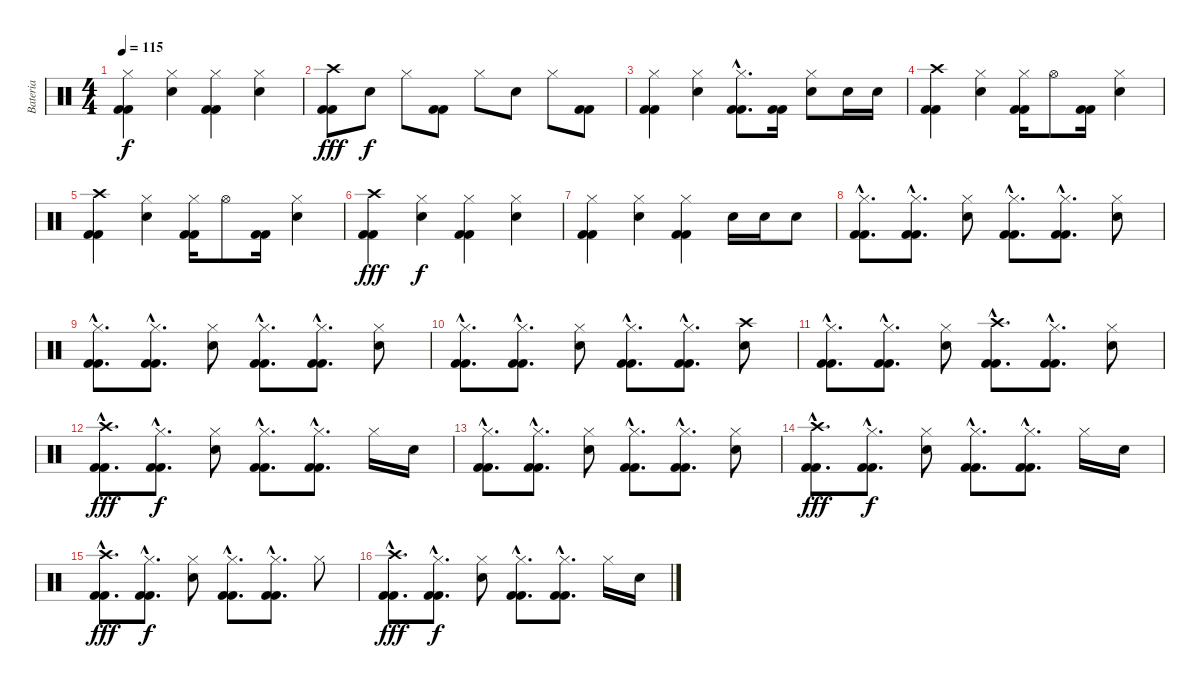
\track ("Bateria" "Bateria") {instrument percussion}
\staff {score}
\articulation defaults
\ts (4 4)
\tempo 115
\clef neutral
\ks c
("Hi-Hat (closed)" "Kick (hit) 2" "Kick (hit) 2").4{dy f} ("Hi-Hat (closed)" "Electric Snare (hit)").4 ("Hi-Hat (closed)" "Kick (hit) 2" "Kick (hit) 2").4 ("Hi-Hat (closed)" "Electric Snare (hit)").4 |
("Crash high (hit)" "Kick (hit) 2" "Kick (hit) 2").8{dy fff} "Electric Snare (hit)".8{dy f} "Hi-Hat (closed)".8 ("Kick (hit) 2" "Kick (hit) 2").8 "Hi-Hat (closed)".8 "Electric Snare (hit)".8 "Hi-Hat (closed)".8 ("Kick (hit) 2" "Kick (hit) 2").8 |
("Hi-Hat (closed)" "Kick (hit) 2" "Kick (hit) 2").4 ("Hi-Hat (closed)" "Electric Snare (hit)").4 ("Hi-Hat (closed)"{hac} "Kick (hit) 2"{hac} "Kick (hit) 2"{hac}).8{d} ("Kick (hit) 2" "Kick (hit) 2").16 ("Hi-Hat (closed)" "Electric Snare (hit)").8 "Electric Snare (hit)".16 "Electric Snare (hit)".16 |
("Crash high (hit)" "Kick (hit) 2" "Kick (hit) 2").4 ("Hi-Hat (closed)" "Electric Snare (hit)").4 ("Hi-Hat (closed)" "Kick (hit) 2" "Kick (hit) 2").16 "Hi-Hat (open)".8 ("Kick (hit) 2" "Kick (hit) 2").16 ("Hi-Hat (closed)" "Electric Snare (hit)").4 |
("Crash high (hit)" "Kick (hit) 2" "Kick (hit) 2").4 ("Hi-Hat (closed)" "Electric Snare (hit)").4 ("Hi-Hat (closed)" "Kick (hit) 2" "Kick (hit) 2").16 "Hi-Hat (open)".8 ("Kick (hit) 2" "Kick (hit) 2").16 ("Hi-Hat (closed)" "Electric Snare (hit)").4 |
("Crash high (hit)" "Kick (hit) 2" "Kick (hit) 2").4{dy fff} ("Hi-Hat (closed)" "Electric Snare (hit)").4{dy f} ("Hi-Hat (closed)" "Kick (hit) 2" "Kick (hit) 2").4 ("Hi-Hat (closed)" "Electric Snare (hit)").4 |
("Hi-Hat (closed)" "Kick (hit) 2" "Kick (hit) 2").4 ("Hi-Hat (closed)" "Electric Snare (hit)").4 ("Hi-Hat (closed)" "Kick (hit) 2" "Kick (hit) 2").4 "Electric Snare (hit)".16 "Electric Snare (hit)".16 "Electric Snare (hit)".8 |
("Hi-Hat (closed)"{hac} "Kick (hit) 2"{hac} "Kick (hit) 2"{hac}).8{d} ("Hi-Hat (closed)"{hac} "Kick (hit) 2"{hac} "Kick (hit) 2"{hac}).8{d} ("Hi-Hat (closed)" "Electric Snare (hit)").8 ("Hi-Hat (closed)"{hac} "Kick (hit) 2"{hac} "Kick (hit) 2"{hac}).8{d} ("Hi-Hat (closed)"{hac} "Kick (hit) 2"{hac} "Kick (hit) 2"{hac}).8{d} ("Hi-Hat (closed)" "Electric Snare (hit)").8 |
("Hi-Hat (closed)"{hac} "Kick (hit) 2"{hac} "Kick (hit) 2"{hac}).8{d} ("Hi-Hat (closed)"{hac} "Kick (hit) 2"{hac} "Kick (hit) 2"{hac}).8{d} ("Hi-Hat (closed)" "Electric Snare (hit)").8 ("Hi-Hat (closed)"{hac} "Kick (hit) 2"{hac} "Kick (hit) 2"{hac}).8{d} ("Hi-Hat (closed)"{hac} "Kick (hit) 2"{hac} "Kick (hit) 2"{hac}).8{d} ("Hi-Hat (closed)" "Electric Snare (hit)").8 |
("Hi-Hat (closed)"{hac} "Kick (hit) 2"{hac} "Kick (hit) 2"{hac}).8{d} ("Hi-Hat (closed)"{hac} "Kick (hit) 2"{hac} "Kick (hit) 2"{hac}).8{d} ("Hi-Hat (closed)" "Electric Snare (hit)").8 ("Hi-Hat (closed)"{hac} "Kick (hit) 2"{hac} "Kick (hit) 2"{hac}).8{d} ("Hi-Hat (closed)"{hac} "Kick (hit) 2"{hac} "Kick (hit) 2"{hac}).8{d} ("Crash high (hit)" "Electric Snare (hit)").8 |
("Hi-Hat (closed)"{hac} "Kick (hit) 2"{hac} "Kick (hit) 2"{hac}).8{d} ("Hi-Hat (closed)"{hac} "Kick (hit) 2"{hac} "Kick (hit) 2"{hac}).8{d} ("Hi-Hat (closed)" "Electric Snare (hit)").8 ("Crash high (hit)"{hac} "Kick (hit) 2"{hac} "Kick (hit) 2"{hac}).8{d} ("Hi-Hat (closed)"{hac} "Kick (hit) 2"{hac} "Kick (hit) 2"{hac}).8{d} ("Hi-Hat (closed)" "Electric Snare (hit)").8 |
("Crash high (hit)" "Kick (hit) 2"{hac} "Kick (hit) 2"{hac}).8{d dy fff} ("Hi-Hat (closed)"{hac} "Kick (hit) 2"{hac} "Kick (hit) 2"{hac}).8{d dy f} ("Hi-Hat (closed)" "Electric Snare (hit)").8 ("Hi-Hat (closed)"{hac} "Kick (hit) 2"{hac} "Kick (hit) 2"{hac}).8{d} ("Hi-Hat (closed)"{hac} "Kick (hit) 2"{hac} "Kick (hit) 2"{hac}).8{d} "Hi-Hat (closed)".16 "Electric Snare (hit)".16 |
("Hi-Hat (closed)"{hac} "Kick (hit) 2"{hac} "Kick (hit) 2"{hac}).8{d} ("Hi-Hat (closed)"{hac} "Kick (hit) 2"{hac} "Kick (hit) 2"{hac}).8{d} ("Hi-Hat (closed)" "Electric Snare (hit)").8 ("Hi-Hat (closed)"{hac} "Kick (hit) 2"{hac} "Kick (hit) 2"{hac}).8{d} ("Hi-Hat (closed)"{hac} "Kick (hit) 2"{hac} "Kick (hit) 2"{hac}).8{d} ("Hi-Hat (closed)" "Electric Snare (hit)").8 |
("Crash high (hit)" "Kick (hit) 2"{hac} "Kick (hit) 2"{hac}).8{d dy fff} ("Hi-Hat (closed)"{hac} "Kick (hit) 2"{hac} "Kick (hit) 2"{hac}).8{d dy f} ("Hi-Hat (closed)" "Electric Snare (hit)").8 ("Hi-Hat (closed)"{hac} "Kick (hit) 2"{hac} "Kick (hit) 2"{hac}).8{d} ("Hi-Hat (closed)"{hac} "Kick (hit) 2"{hac} "Kick (hit) 2"{hac}).8{d} "Hi-Hat (closed)".16 "Electric Snare (hit)".16 |
("Crash high (hit)" "Kick (hit) 2"{hac} "Kick (hit) 2"{hac}).8{d dy fff} ("Hi-Hat (closed)"{hac} "Kick (hit) 2"{hac} "Kick (hit) 2"{hac}).8{d dy f} ("Hi-Hat (closed)" "Electric Snare (hit)").8 ("Hi-Hat (closed)"{hac} "Kick (hit) 2"{hac} "Kick (hit) 2"{hac}).8{d} ("Hi-Hat (closed)"{hac} "Kick (hit) 2"{hac} "Kick (hit) 2"{hac}).8{d} "Hi-Hat (closed)".8 |
("Crash high (hit)" "Kick (hit) 2"{hac} "Kick (hit) 2"{hac}).8{d dy fff} ("Hi-Hat (closed)"{hac} "Kick (hit) 2"{hac} "Kick (hit) 2"{hac}).8{d dy f} ("Hi-Hat (closed)" "Electric Snare (hit)").8 ("Hi-Hat (closed)"{hac} "Kick (hit) 2"{hac} "Kick (hit) 2"{hac}).8{d} ("Hi-Hat (closed)"{hac} "Kick (hit) 2"{hac} "Kick (hit) 2"{hac}).8{d} "Hi-Hat (closed)".16 "Electric Snare (hit)".16
